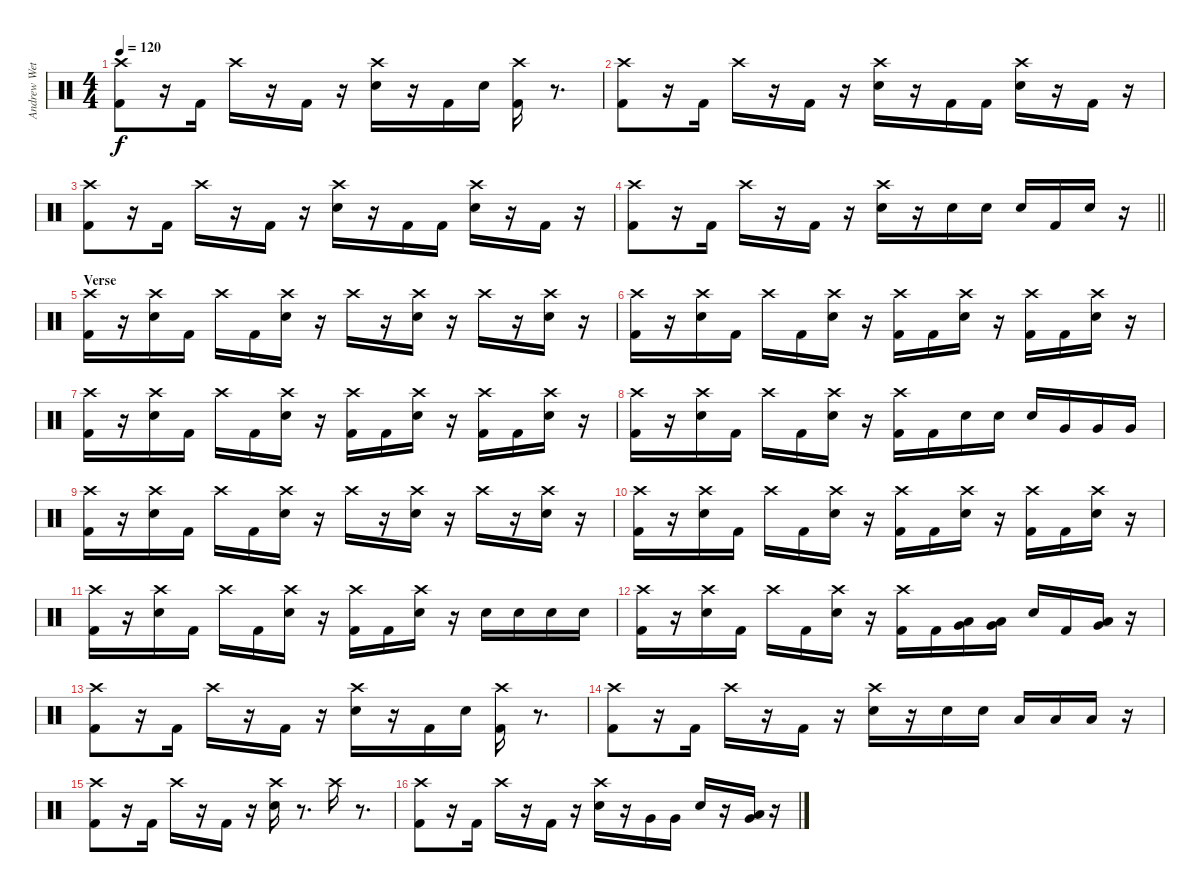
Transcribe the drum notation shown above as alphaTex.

\track ("Andrew Wetzel" "Andrew Wet") {instrument percussion}
\staff {score}
\articulation defaults
\ts (4 4)
\tempo 120
\clef neutral
\ks c
("Crash high (hit)" "Kick (hit) 2").8{dy f} r.16 "Kick (hit) 2".16 "Crash high (hit)".16 r.16 "Kick (hit) 2".16 r.16 ("Crash high (hit)" "Electric Snare (hit)").16 r.16 "Kick (hit) 2".16 "Electric Snare (hit)".16 ("Crash high (hit)" "Kick (hit) 2").16 r.8{d} |
("Crash high (hit)" "Kick (hit) 2").8 r.16 "Kick (hit) 2".16 "Crash high (hit)".16 r.16 "Kick (hit) 2".16 r.16 ("Crash high (hit)" "Electric Snare (hit)").16 r.16 "Kick (hit) 2".16 "Kick (hit) 2".16 ("Crash high (hit)" "Electric Snare (hit)").16 r.16 "Kick (hit) 2".16 r.16 |
("Crash high (hit)" "Kick (hit) 2").8 r.16 "Kick (hit) 2".16 "Crash high (hit)".16 r.16 "Kick (hit) 2".16 r.16 ("Crash high (hit)" "Electric Snare (hit)").16 r.16 "Kick (hit) 2".16 "Kick (hit) 2".16 ("Crash high (hit)" "Electric Snare (hit)").16 r.16 "Kick (hit) 2".16 r.16 |
\barLineRight lightlight
("Crash high (hit)" "Kick (hit) 2").8 r.16 "Kick (hit) 2".16 "Crash high (hit)".16 r.16 "Kick (hit) 2".16 r.16 ("Crash high (hit)" "Electric Snare (hit)").16 r.16 "Electric Snare (hit)".16 "Electric Snare (hit)".16 "Electric Snare (hit)".16 "Kick (hit) 2".16 "Electric Snare (hit)".16 r.16 |
\section ("" "Verse")
("Crash high (hit)" "Kick (hit) 2").16 r.16 ("Crash high (hit)" "Electric Snare (hit)").16 "Kick (hit) 2".16 "Crash high (hit)".16 "Kick (hit) 2".16 ("Crash high (hit)" "Electric Snare (hit)").16 r.16 "Crash high (hit)".16 r.16 ("Crash high (hit)" "Electric Snare (hit)").16 r.16 "Crash high (hit)".16 r.16 ("Crash high (hit)" "Electric Snare (hit)").16 r.16 |
("Crash high (hit)" "Kick (hit) 2").16 r.16 ("Crash high (hit)" "Electric Snare (hit)").16 "Kick (hit) 2".16 "Crash high (hit)".16 "Kick (hit) 2".16 ("Crash high (hit)" "Electric Snare (hit)").16 r.16 ("Crash high (hit)" "Kick (hit) 2").16 "Kick (hit) 2".16 ("Crash high (hit)" "Electric Snare (hit)").16 r.16 ("Crash high (hit)" "Kick (hit) 2").16 "Kick (hit) 2".16 ("Crash high (hit)" "Electric Snare (hit)").16 r.16 |
("Crash high (hit)" "Kick (hit) 2").16 r.16 ("Crash high (hit)" "Electric Snare (hit)").16 "Kick (hit) 2".16 "Crash high (hit)".16 "Kick (hit) 2".16 ("Crash high (hit)" "Electric Snare (hit)").16 r.16 ("Crash high (hit)" "Kick (hit) 2").16 "Kick (hit) 2".16 ("Crash high (hit)" "Electric Snare (hit)").16 r.16 ("Crash high (hit)" "Kick (hit) 2").16 "Kick (hit) 2".16 ("Crash high (hit)" "Electric Snare (hit)").16 r.16 |
("Crash high (hit)" "Kick (hit) 2").16 r.16 ("Crash high (hit)" "Electric Snare (hit)").16 "Kick (hit) 2".16 "Crash high (hit)".16 "Kick (hit) 2".16 ("Crash high (hit)" "Electric Snare (hit)").16 r.16 ("Crash high (hit)" "Kick (hit) 2").16 "Kick (hit) 2".16 "Electric Snare (hit)".16 "Electric Snare (hit)".16 "Electric Snare (hit)".16 "Very Low Tom (hit)".16 "Very Low Tom (hit)".16 "Very Low Tom (hit)".16 |
("Crash high (hit)" "Kick (hit) 2").16 r.16 ("Crash high (hit)" "Electric Snare (hit)").16 "Kick (hit) 2".16 "Crash high (hit)".16 "Kick (hit) 2".16 ("Crash high (hit)" "Electric Snare (hit)").16 r.16 "Crash high (hit)".16 r.16 ("Crash high (hit)" "Electric Snare (hit)").16 r.16 "Crash high (hit)".16 r.16 ("Crash high (hit)" "Electric Snare (hit)").16 r.16 |
("Crash high (hit)" "Kick (hit) 2").16 r.16 ("Crash high (hit)" "Electric Snare (hit)").16 "Kick (hit) 2".16 "Crash high (hit)".16 "Kick (hit) 2".16 ("Crash high (hit)" "Electric Snare (hit)").16 r.16 ("Crash high (hit)" "Kick (hit) 2").16 "Kick (hit) 2".16 ("Crash high (hit)" "Electric Snare (hit)").16 r.16 ("Crash high (hit)" "Kick (hit) 2").16 "Kick (hit) 2".16 ("Crash high (hit)" "Electric Snare (hit)").16 r.16 |
("Crash high (hit)" "Kick (hit) 2").16 r.16 ("Crash high (hit)" "Electric Snare (hit)").16 "Kick (hit) 2".16 "Crash high (hit)".16 "Kick (hit) 2".16 ("Crash high (hit)" "Electric Snare (hit)").16 r.16 ("Crash high (hit)" "Kick (hit) 2").16 "Kick (hit) 2".16 ("Crash high (hit)" "Electric Snare (hit)").16 r.16 "Electric Snare (hit)".16 "Electric Snare (hit)".16 "Electric Snare (hit)".16 "Electric Snare (hit)".16 |
("Crash high (hit)" "Kick (hit) 2").16 r.16 ("Crash high (hit)" "Electric Snare (hit)").16 "Kick (hit) 2".16 "Crash high (hit)".16 "Kick (hit) 2".16 ("Crash high (hit)" "Electric Snare (hit)").16 r.16 ("Crash high (hit)" "Kick (hit) 2").16 "Kick (hit) 2".16 ("Low Floor Tom (hit)" "Very Low Tom (hit)").16 ("Low Floor Tom (hit)" "Very Low Tom (hit)").16 "Electric Snare (hit)".16 "Kick (hit) 2".16 ("Low Floor Tom (hit)" "Very Low Tom (hit)").16 r.16 |
("Crash high (hit)" "Kick (hit) 2").8 r.16 "Kick (hit) 2".16 "Crash high (hit)".16 r.16 "Kick (hit) 2".16 r.16 ("Crash high (hit)" "Electric Snare (hit)").16 r.16 "Kick (hit) 2".16 "Electric Snare (hit)".16 ("Crash high (hit)" "Kick (hit) 2").16 r.8{d} |
("Crash high (hit)" "Kick (hit) 2").8 r.16 "Kick (hit) 2".16 "Crash high (hit)".16 r.16 "Kick (hit) 2".16 r.16 ("Crash high (hit)" "Electric Snare (hit)").16 r.16 "Electric Snare (hit)".16 "Electric Snare (hit)".16 "Low Tom (hit)".16 "Low Tom (hit)".16 "Low Floor Tom (hit)".16 r.16 |
("Crash high (hit)" "Kick (hit) 2").8 r.16 "Kick (hit) 2".16 "Crash high (hit)".16 r.16 "Kick (hit) 2".16 r.16 ("Crash high (hit)" "Electric Snare (hit)").16 r.8{d} "Crash high (hit)".16 r.8{d} |
("Crash high (hit)" "Kick (hit) 2").8 r.16 "Kick (hit) 2".16 "Crash high (hit)".16 r.16 "Kick (hit) 2".16 r.16 ("Crash high (hit)" "Electric Snare (hit)").16 r.16 "Very Low Tom (hit)".16 "Very Low Tom (hit)".16 "Electric Snare (hit)".16 r.16 ("Very Low Tom (hit)" "Low Floor Tom (hit)").16 r.16
